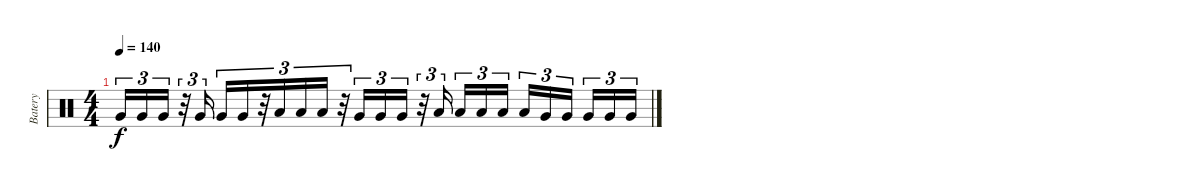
\track ("Batery" "Batery") {instrument percussion}
\staff {score}
\articulation defaults
\ts (4 4)
\tempo 140
\clef neutral
\ks c "Very Low Tom (hit)".16{tu (3 2) dy f} "Very Low Tom (hit)".16{tu (3 2)} "Very Low Tom (hit)".16{tu (3 2)}
r.32{tu (3 2)} "Very Low Tom (hit)".16{tu (3 2)} "Very Low Tom (hit)".16{tu (3 2)} "Very Low Tom (hit)".16{tu (3 2)} r.32{tu (3 2)} "Low Tom (hit)".16{tu (3 2)} "Low Tom (hit)".16{tu (3 2)} "Low Tom (hit)".16{tu (3 2)} r.32{tu (3 2)} "Very Low Tom (hit)".16{tu (3 2)} "Very Low Tom (hit)".16{tu (3 2)} "Very Low Tom (hit)".16{tu (3 2)} r.32{tu (3 2)} "Low Floor Tom (hit)".16{tu (3 2)} "Low Floor Tom (hit)".16{tu (3 2)} "Low Floor Tom (hit)".16{tu (3 2)} "Low Floor Tom (hit)".16{tu (3 2)} "Low Floor Tom (hit)".16{tu (3 2)} "Very Low Tom (hit)".16{tu (3 2)} "Very Low Tom (hit)".16{tu (3 2)} "Very Low Tom (hit)".16{tu (3 2)} "Very Low Tom (hit)".16{tu (3 2)} "Very Low Tom (hit)".16{tu (3 2)}
